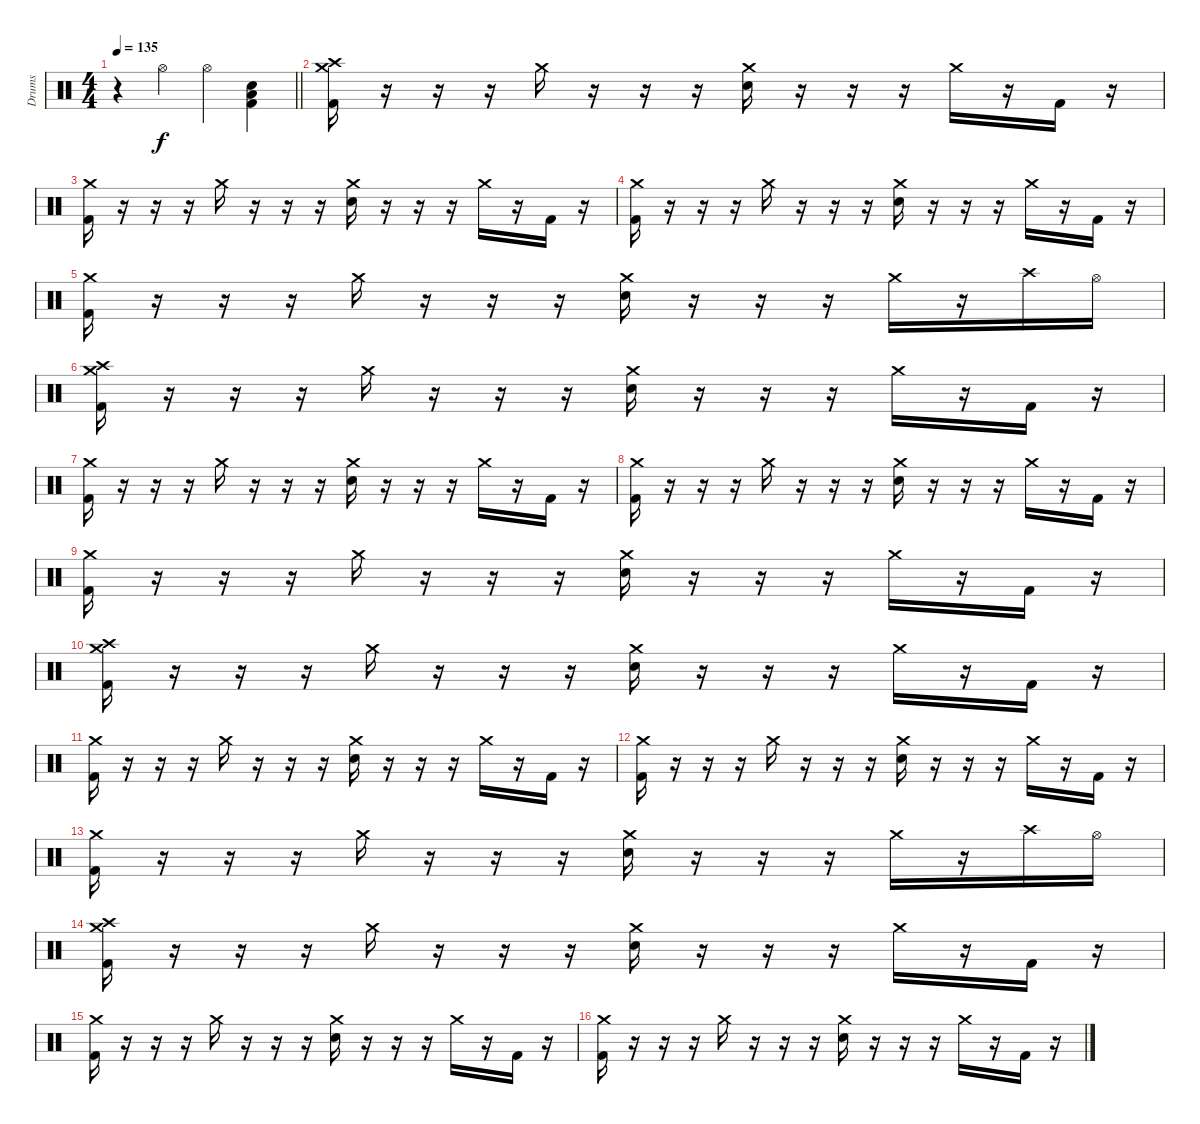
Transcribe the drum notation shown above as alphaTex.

\track ("Drums" "Drums") {instrument percussion}
\staff {score}
\articulation defaults
\ts (4 4)
\tempo 135
\clef neutral
\barLineRight lightlight
\ks c
r.4{dy f} "Hi-Hat (open)".4 "Hi-Hat (open)".4{beam merge} ("Low Floor Tom (hit)" "Electric Snare (hit)" "Kick (hit) 2").4 |
("Crash medium (hit)" "Crash high (hit)" "Kick (hit) 2").16 r.16 r.16 r.16 "Crash medium (hit)".16 r.16 r.16 r.16 ("Crash medium (hit)" "Electric Snare (hit)").16 r.16 r.16 r.16 "Crash medium (hit)".16 r.16 "Kick (hit) 2".16 r.16 |
("Crash medium (hit)" "Kick (hit) 2").16 r.16 r.16 r.16 "Crash medium (hit)".16 r.16 r.16 r.16 ("Crash medium (hit)" "Electric Snare (hit)").16 r.16 r.16 r.16 "Crash medium (hit)".16 r.16 "Kick (hit) 2".16 r.16 |
("Crash medium (hit)" "Kick (hit) 2").16 r.16 r.16 r.16 "Crash medium (hit)".16 r.16 r.16 r.16 ("Crash medium (hit)" "Electric Snare (hit)").16 r.16 r.16 r.16 "Crash medium (hit)".16 r.16 "Kick (hit) 2".16 r.16 |
("Crash medium (hit)" "Kick (hit) 2").16 r.16 r.16 r.16 "Crash medium (hit)".16 r.16 r.16 r.16 ("Crash medium (hit)" "Electric Snare (hit)").16 r.16 r.16 r.16 "Crash medium (hit)".16 r.16 "Crash high (hit)".16 "Hi-Hat (open)".16 |
("Crash medium (hit)" "Crash high (hit)" "Kick (hit) 2").16 r.16 r.16 r.16 "Crash medium (hit)".16 r.16 r.16 r.16 ("Crash medium (hit)" "Electric Snare (hit)").16 r.16 r.16 r.16 "Crash medium (hit)".16 r.16 "Kick (hit) 2".16 r.16 |
("Crash medium (hit)" "Kick (hit) 2").16 r.16 r.16 r.16 "Crash medium (hit)".16 r.16 r.16 r.16 ("Crash medium (hit)" "Electric Snare (hit)").16 r.16 r.16 r.16 "Crash medium (hit)".16 r.16 "Kick (hit) 2".16 r.16 |
("Crash medium (hit)" "Kick (hit) 2").16 r.16 r.16 r.16 "Crash medium (hit)".16 r.16 r.16 r.16 ("Crash medium (hit)" "Electric Snare (hit)").16 r.16 r.16 r.16 "Crash medium (hit)".16 r.16 "Kick (hit) 2".16 r.16 |
("Crash medium (hit)" "Kick (hit) 2").16 r.16 r.16 r.16 "Crash medium (hit)".16 r.16 r.16 r.16 ("Crash medium (hit)" "Electric Snare (hit)").16 r.16 r.16 r.16 "Crash medium (hit)".16 r.16 "Kick (hit) 2".16 r.16 |
("Crash medium (hit)" "Crash high (hit)" "Kick (hit) 2").16 r.16 r.16 r.16 "Crash medium (hit)".16 r.16 r.16 r.16 ("Crash medium (hit)" "Electric Snare (hit)").16 r.16 r.16 r.16 "Crash medium (hit)".16 r.16 "Kick (hit) 2".16 r.16 |
("Crash medium (hit)" "Kick (hit) 2").16 r.16 r.16 r.16 "Crash medium (hit)".16 r.16 r.16 r.16 ("Crash medium (hit)" "Electric Snare (hit)").16 r.16 r.16 r.16 "Crash medium (hit)".16 r.16 "Kick (hit) 2".16 r.16 |
("Crash medium (hit)" "Kick (hit) 2").16 r.16 r.16 r.16 "Crash medium (hit)".16 r.16 r.16 r.16 ("Crash medium (hit)" "Electric Snare (hit)").16 r.16 r.16 r.16 "Crash medium (hit)".16 r.16 "Kick (hit) 2".16 r.16 |
("Crash medium (hit)" "Kick (hit) 2").16 r.16 r.16 r.16 "Crash medium (hit)".16 r.16 r.16 r.16 ("Crash medium (hit)" "Electric Snare (hit)").16 r.16 r.16 r.16 "Crash medium (hit)".16 r.16 "Crash high (hit)".16 "Hi-Hat (open)".16 |
("Crash medium (hit)" "Crash high (hit)" "Kick (hit) 2").16 r.16 r.16 r.16 "Crash medium (hit)".16 r.16 r.16 r.16 ("Crash medium (hit)" "Electric Snare (hit)").16 r.16 r.16 r.16 "Crash medium (hit)".16 r.16 "Kick (hit) 2".16 r.16 |
("Crash medium (hit)" "Kick (hit) 2").16 r.16 r.16 r.16 "Crash medium (hit)".16 r.16 r.16 r.16 ("Crash medium (hit)" "Electric Snare (hit)").16 r.16 r.16 r.16 "Crash medium (hit)".16 r.16 "Kick (hit) 2".16 r.16 |
("Crash medium (hit)" "Kick (hit) 2").16 r.16 r.16 r.16 "Crash medium (hit)".16 r.16 r.16 r.16 ("Crash medium (hit)" "Electric Snare (hit)").16 r.16 r.16 r.16 "Crash medium (hit)".16 r.16 "Kick (hit) 2".16 r.16
